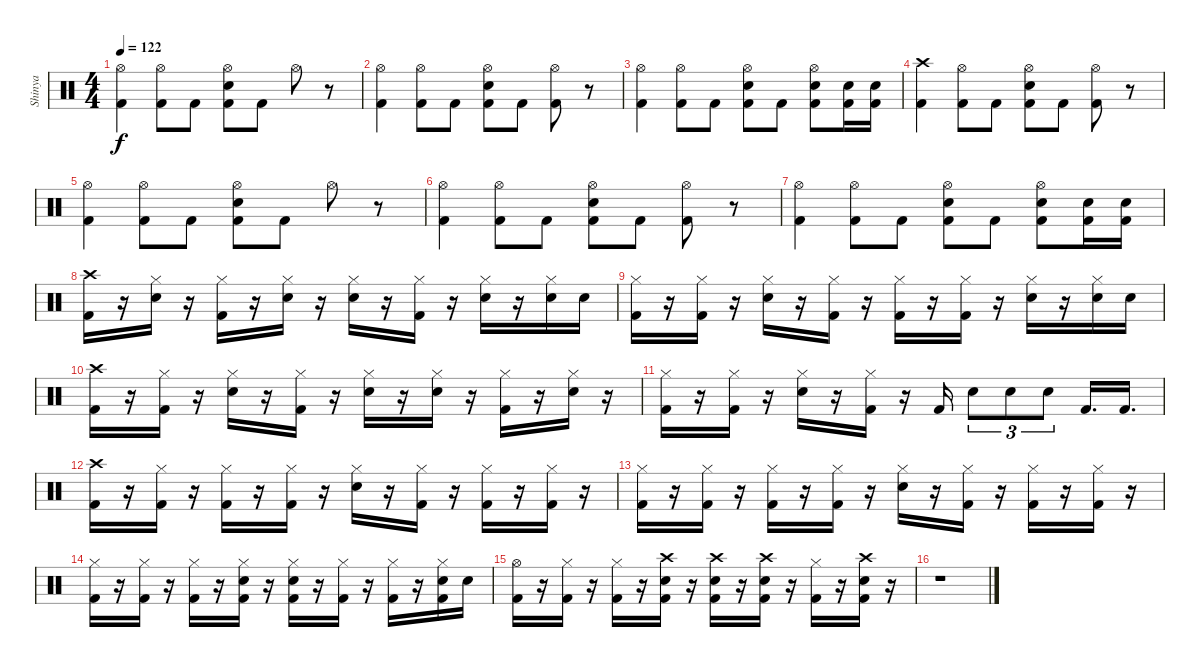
\track ("Shinya" "Shinya") {instrument percussion}
\staff {score}
\articulation defaults
\ts (4 4)
\tempo 122
\clef neutral
\ks c
("Hi-Hat (open)" "Kick (hit) 2").4{dy f} ("Hi-Hat (open)" "Kick (hit) 2").8 "Kick (hit) 2".8 ("Hi-Hat (open)" "Electric Snare (hit)" "Kick (hit) 2").8 "Kick (hit) 2".8 "Hi-Hat (open)".8 r.8 |
("Hi-Hat (open)" "Kick (hit) 2").4 ("Hi-Hat (open)" "Kick (hit) 2").8 "Kick (hit) 2".8 ("Hi-Hat (open)" "Electric Snare (hit)" "Kick (hit) 2").8 "Kick (hit) 2".8 ("Hi-Hat (open)" "Kick (hit) 2").8 r.8 |
("Hi-Hat (open)" "Kick (hit) 2").4 ("Hi-Hat (open)" "Kick (hit) 2").8 "Kick (hit) 2".8 ("Hi-Hat (open)" "Electric Snare (hit)" "Kick (hit) 2").8 "Kick (hit) 2".8 ("Hi-Hat (open)" "Electric Snare (hit)" "Kick (hit) 2").8 ("Electric Snare (hit)" "Kick (hit) 2").16 ("Electric Snare (hit)" "Kick (hit) 2").16 |
("Crash high (hit)" "Kick (hit) 2").4 ("Hi-Hat (open)" "Kick (hit) 2").8 "Kick (hit) 2".8 ("Hi-Hat (open)" "Electric Snare (hit)" "Kick (hit) 2").8 "Kick (hit) 2".8 ("Hi-Hat (open)" "Kick (hit) 2").8 r.8 |
("Hi-Hat (open)" "Kick (hit) 2").4 ("Hi-Hat (open)" "Kick (hit) 2").8 "Kick (hit) 2".8 ("Hi-Hat (open)" "Electric Snare (hit)" "Kick (hit) 2").8 "Kick (hit) 2".8 "Hi-Hat (open)".8 r.8 |
("Hi-Hat (open)" "Kick (hit) 2").4 ("Hi-Hat (open)" "Kick (hit) 2").8 "Kick (hit) 2".8 ("Hi-Hat (open)" "Electric Snare (hit)" "Kick (hit) 2").8 "Kick (hit) 2".8 ("Hi-Hat (open)" "Kick (hit) 2").8 r.8 |
("Hi-Hat (open)" "Kick (hit) 2").4 ("Hi-Hat (open)" "Kick (hit) 2").8 "Kick (hit) 2".8 ("Hi-Hat (open)" "Electric Snare (hit)" "Kick (hit) 2").8 "Kick (hit) 2".8 ("Hi-Hat (open)" "Electric Snare (hit)" "Kick (hit) 2").8 ("Electric Snare (hit)" "Kick (hit) 2").16 ("Electric Snare (hit)" "Kick (hit) 2").16 |
("Crash high (hit)" "Kick (hit) 2").16 r.16 ("Hi-Hat (closed)" "Electric Snare (hit)").16 r.16 ("Hi-Hat (closed)" "Kick (hit) 2").16 r.16 ("Hi-Hat (closed)" "Electric Snare (hit)").16 r.16 ("Hi-Hat (closed)" "Electric Snare (hit)").16 r.16 ("Hi-Hat (closed)" "Kick (hit) 2").16 r.16 ("Hi-Hat (closed)" "Electric Snare (hit)").16 r.16 ("Hi-Hat (closed)" "Electric Snare (hit)").16 "Electric Snare (hit)".16 |
("Hi-Hat (closed)" "Kick (hit) 2").16 r.16 ("Hi-Hat (closed)" "Kick (hit) 2").16 r.16 ("Hi-Hat (closed)" "Electric Snare (hit)").16 r.16 ("Hi-Hat (closed)" "Kick (hit) 2").16 r.16 ("Hi-Hat (closed)" "Kick (hit) 2").16 r.16 ("Hi-Hat (closed)" "Kick (hit) 2").16 r.16 ("Hi-Hat (closed)" "Electric Snare (hit)").16 r.16 ("Hi-Hat (closed)" "Electric Snare (hit)").16 "Electric Snare (hit)".16 |
("Crash high (hit)" "Kick (hit) 2").16 r.16 ("Hi-Hat (closed)" "Kick (hit) 2").16 r.16 ("Hi-Hat (closed)" "Electric Snare (hit)").16 r.16 ("Hi-Hat (closed)" "Kick (hit) 2").16 r.16 ("Hi-Hat (closed)" "Electric Snare (hit)").16 r.16 ("Hi-Hat (closed)" "Electric Snare (hit)").16 r.16 ("Hi-Hat (closed)" "Kick (hit) 2").16 r.16 ("Hi-Hat (closed)" "Electric Snare (hit)").16 r.16 |
("Hi-Hat (closed)" "Kick (hit) 2").16 r.16 ("Hi-Hat (closed)" "Kick (hit) 2").16 r.16 ("Hi-Hat (closed)" "Electric Snare (hit)").16 r.16 ("Hi-Hat (closed)" "Kick (hit) 2").16 r.16 "Kick (hit) 2".16 "Electric Snare (hit)".8{tu (3 2)} "Electric Snare (hit)".8{tu (3 2)} "Electric Snare (hit)".8{tu (3 2)} "Kick (hit) 2".16{d} "Kick (hit) 2".16{d} |
("Crash high (hit)" "Kick (hit) 2").16 r.16 ("Hi-Hat (closed)" "Kick (hit) 2").16 r.16 ("Hi-Hat (closed)" "Kick (hit) 2").16 r.16 ("Hi-Hat (closed)" "Kick (hit) 2").16 r.16 ("Hi-Hat (closed)" "Electric Snare (hit)").16 r.16 ("Hi-Hat (closed)" "Kick (hit) 2").16 r.16 ("Hi-Hat (closed)" "Kick (hit) 2").16 r.16 ("Hi-Hat (closed)" "Kick (hit) 2").16 r.16 |
("Hi-Hat (closed)" "Kick (hit) 2").16 r.16 ("Hi-Hat (closed)" "Kick (hit) 2").16 r.16 ("Hi-Hat (closed)" "Kick (hit) 2").16 r.16 ("Hi-Hat (closed)" "Kick (hit) 2").16 r.16 ("Hi-Hat (closed)" "Electric Snare (hit)").16 r.16 ("Hi-Hat (closed)" "Kick (hit) 2").16 r.16 ("Hi-Hat (closed)" "Kick (hit) 2").16 r.16 ("Hi-Hat (closed)" "Kick (hit) 2").16 r.16 |
("Hi-Hat (closed)" "Kick (hit) 2").16 r.16 ("Hi-Hat (closed)" "Kick (hit) 2").16 r.16 ("Hi-Hat (closed)" "Kick (hit) 2").16 r.16 ("Hi-Hat (closed)" "Electric Snare (hit)" "Kick (hit) 2").16 r.16 ("Hi-Hat (closed)" "Electric Snare (hit)" "Kick (hit) 2").16 r.16 ("Hi-Hat (closed)" "Kick (hit) 2").16 r.16 ("Hi-Hat (closed)" "Kick (hit) 2").16 r.16 ("Hi-Hat (closed)" "Electric Snare (hit)" "Kick (hit) 2").16 "Electric Snare (hit)".16 |
("Hi-Hat (open)" "Kick (hit) 2").16 r.16 ("Hi-Hat (closed)" "Kick (hit) 2").16 r.16 ("Hi-Hat (closed)" "Kick (hit) 2").16 r.16 ("Crash high (hit)" "Electric Snare (hit)" "Kick (hit) 2").16 r.16 ("Crash high (hit)" "Electric Snare (hit)" "Kick (hit) 2").16 r.16 ("Crash high (hit)" "Electric Snare (hit)" "Kick (hit) 2").16 r.16 ("Hi-Hat (closed)" "Kick (hit) 2").16 r.16 ("Crash high (hit)" "Electric Snare (hit)" "Kick (hit) 2").16 r.16 |
r.1
